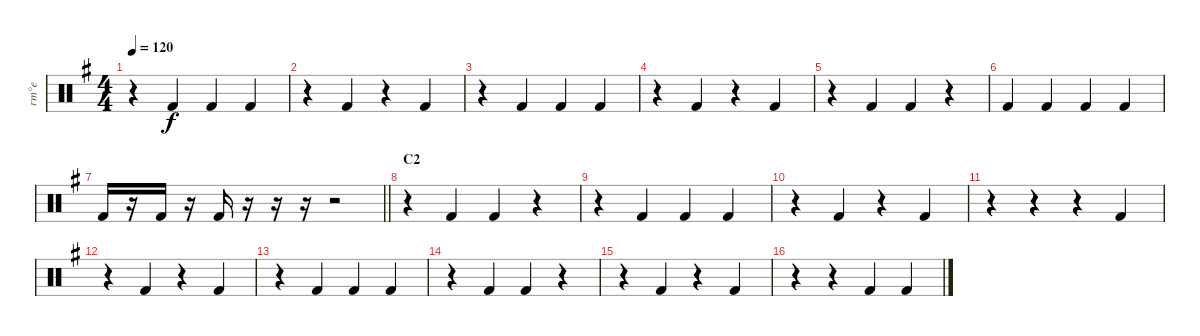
\track ("ґт°е" "ґт°е") {instrument percussion}
\staff {score}
\articulation defaults
\ts (4 4)
\tempo 120
\clef neutral
\ks g
r.4{dy f} "Kick (hit) 2".4 "Kick (hit) 2".4 "Kick (hit) 2".4 |
r.4 "Kick (hit) 2".4 r.4 "Kick (hit) 2".4 |
r.4 "Kick (hit) 2".4 "Kick (hit) 2".4 "Kick (hit) 2".4 |
r.4 "Kick (hit) 2".4 r.4 "Kick (hit) 2".4 |
r.4 "Kick (hit) 2".4 "Kick (hit) 2".4 r.4 |
"Kick (hit) 2".4 "Kick (hit) 2".4 "Kick (hit) 2".4 "Kick (hit) 2".4 |
\barLineRight lightlight "Kick (hit) 2".16
r.16 "Kick (hit) 2".16 r.16 "Kick (hit) 2".16 r.16 r.16 r.16 r.2 |
\section ("" "C2")
r.4 "Kick (hit) 2".4 "Kick (hit) 2".4 r.4 |
r.4 "Kick (hit) 2".4 "Kick (hit) 2".4 "Kick (hit) 2".4 |
r.4 "Kick (hit) 2".4 r.4 "Kick (hit) 2".4 |
r.4 r.4 r.4 "Kick (hit) 2".4 |
r.4 "Kick (hit) 2".4 r.4 "Kick (hit) 2".4 |
r.4 "Kick (hit) 2".4 "Kick (hit) 2".4 "Kick (hit) 2".4 |
r.4 "Kick (hit) 2".4 "Kick (hit) 2".4 r.4 |
r.4 "Kick (hit) 2".4 r.4 "Kick (hit) 2".4 |
r.4 r.4 "Kick (hit) 2".4 "Kick (hit) 2".4
